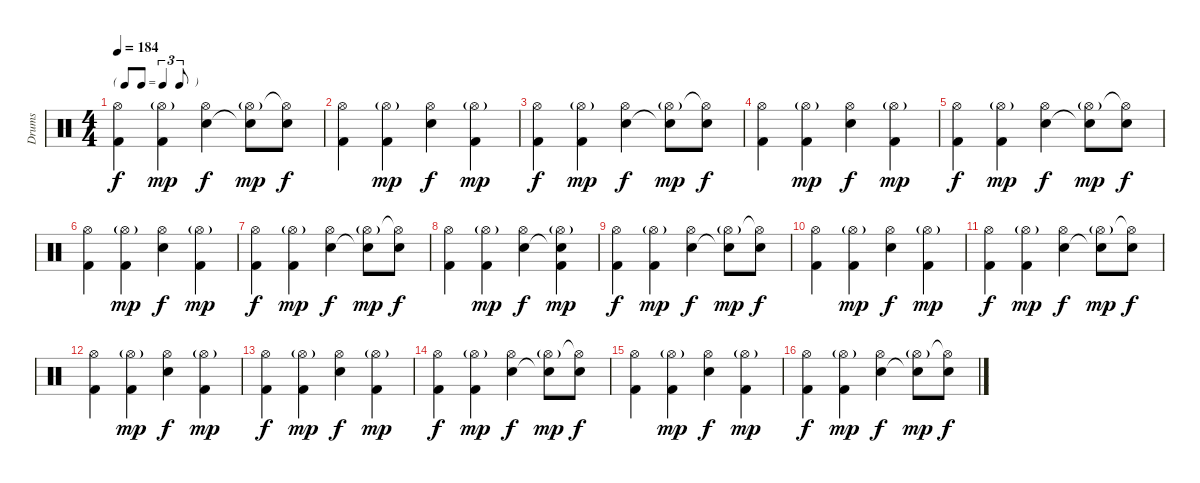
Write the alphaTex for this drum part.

\track ("Drums" "Drums") {instrument percussion}
\staff {score}
\articulation defaults
\ts (4 4)
\tf triplet8th
\tempo 184
\clef neutral
\ks c
("Hi-Hat (open)" "Kick (hit) 2").4{dy f} ("Hi-Hat (open)"{g} "Kick (hit) 2").4{dy mp} ("Hi-Hat (open)" "Electric Snare (hit)").4{dy f} ("Hi-Hat (open)"{g} "Snare (hit)"{t}).8{dy mp} ("Hi-Hat (open)"{t} "Electric Snare (hit)").8{dy f} |
("Hi-Hat (open)" "Kick (hit) 2").4 ("Hi-Hat (open)"{g} "Kick (hit) 2").4{dy mp} ("Hi-Hat (open)" "Electric Snare (hit)").4{dy f} ("Hi-Hat (open)"{g} "Kick (hit) 2").4{dy mp} |
("Hi-Hat (open)" "Kick (hit) 2").4{dy f} ("Hi-Hat (open)"{g} "Kick (hit) 2").4{dy mp} ("Hi-Hat (open)" "Electric Snare (hit)").4{dy f} ("Hi-Hat (open)"{g} "Snare (hit)"{t}).8{dy mp} ("Hi-Hat (open)"{t} "Electric Snare (hit)").8{dy f} |
("Hi-Hat (open)" "Kick (hit) 2").4 ("Hi-Hat (open)"{g} "Kick (hit) 2").4{dy mp} ("Hi-Hat (open)" "Electric Snare (hit)").4{dy f} ("Hi-Hat (open)"{g} "Kick (hit) 2").4{dy mp} |
("Hi-Hat (open)" "Kick (hit) 2").4{dy f} ("Hi-Hat (open)"{g} "Kick (hit) 2").4{dy mp} ("Hi-Hat (open)" "Electric Snare (hit)").4{dy f} ("Hi-Hat (open)"{g} "Snare (hit)"{t}).8{dy mp} ("Hi-Hat (open)"{t} "Electric Snare (hit)").8{dy f} |
("Hi-Hat (open)" "Kick (hit) 2").4 ("Hi-Hat (open)"{g} "Kick (hit) 2").4{dy mp} ("Hi-Hat (open)" "Electric Snare (hit)").4{dy f} ("Hi-Hat (open)"{g} "Kick (hit) 2").4{dy mp} |
("Hi-Hat (open)" "Kick (hit) 2").4{dy f} ("Hi-Hat (open)"{g} "Kick (hit) 2").4{dy mp} ("Hi-Hat (open)" "Electric Snare (hit)").4{dy f} ("Hi-Hat (open)"{g} "Snare (hit)"{t}).8{dy mp} ("Hi-Hat (open)"{t} "Electric Snare (hit)").8{dy f} |
("Hi-Hat (open)" "Kick (hit) 2").4 ("Hi-Hat (open)"{g} "Kick (hit) 2").4{dy mp} ("Hi-Hat (open)" "Electric Snare (hit)").4{dy f} ("Hi-Hat (open)"{g} "Snare (hit)"{t} "Kick (hit) 2").4{dy mp} |
("Hi-Hat (open)" "Kick (hit) 2").4{dy f} ("Hi-Hat (open)"{g} "Kick (hit) 2").4{dy mp} ("Hi-Hat (open)" "Electric Snare (hit)").4{dy f} ("Hi-Hat (open)"{g} "Snare (hit)"{t}).8{dy mp} ("Hi-Hat (open)"{t} "Electric Snare (hit)").8{dy f} |
("Hi-Hat (open)" "Kick (hit) 2").4 ("Hi-Hat (open)"{g} "Kick (hit) 2").4{dy mp} ("Hi-Hat (open)" "Electric Snare (hit)").4{dy f} ("Hi-Hat (open)"{g} "Kick (hit) 2").4{dy mp} |
("Hi-Hat (open)" "Kick (hit) 2").4{dy f} ("Hi-Hat (open)"{g} "Kick (hit) 2").4{dy mp} ("Hi-Hat (open)" "Electric Snare (hit)").4{dy f} ("Hi-Hat (open)"{g} "Snare (hit)"{t}).8{dy mp} ("Hi-Hat (open)"{t} "Electric Snare (hit)").8{dy f} |
("Hi-Hat (open)" "Kick (hit) 2").4 ("Hi-Hat (open)"{g} "Kick (hit) 2").4{dy mp} ("Hi-Hat (open)" "Electric Snare (hit)").4{dy f} ("Hi-Hat (open)"{g} "Kick (hit) 2").4{dy mp} |
("Hi-Hat (open)" "Kick (hit) 2").4{dy f} ("Hi-Hat (open)"{g} "Kick (hit) 2").4{dy mp} ("Hi-Hat (open)" "Electric Snare (hit)").4{dy f} ("Hi-Hat (open)"{g} "Kick (hit) 2").4{dy mp} |
("Hi-Hat (open)" "Kick (hit) 2").4{dy f} ("Hi-Hat (open)"{g} "Kick (hit) 2").4{dy mp} ("Hi-Hat (open)" "Electric Snare (hit)").4{dy f} ("Hi-Hat (open)"{g} "Snare (hit)"{t}).8{dy mp} ("Hi-Hat (open)"{t} "Electric Snare (hit)").8{dy f} |
("Hi-Hat (open)" "Kick (hit) 2").4 ("Hi-Hat (open)"{g} "Kick (hit) 2").4{dy mp} ("Hi-Hat (open)" "Electric Snare (hit)").4{dy f} ("Hi-Hat (open)"{g} "Kick (hit) 2").4{dy mp} |
("Hi-Hat (open)" "Kick (hit) 2").4{dy f} ("Hi-Hat (open)"{g} "Kick (hit) 2").4{dy mp} ("Hi-Hat (open)" "Electric Snare (hit)").4{dy f} ("Hi-Hat (open)"{g} "Snare (hit)"{t}).8{dy mp} ("Hi-Hat (open)"{t} "Electric Snare (hit)").8{dy f}
